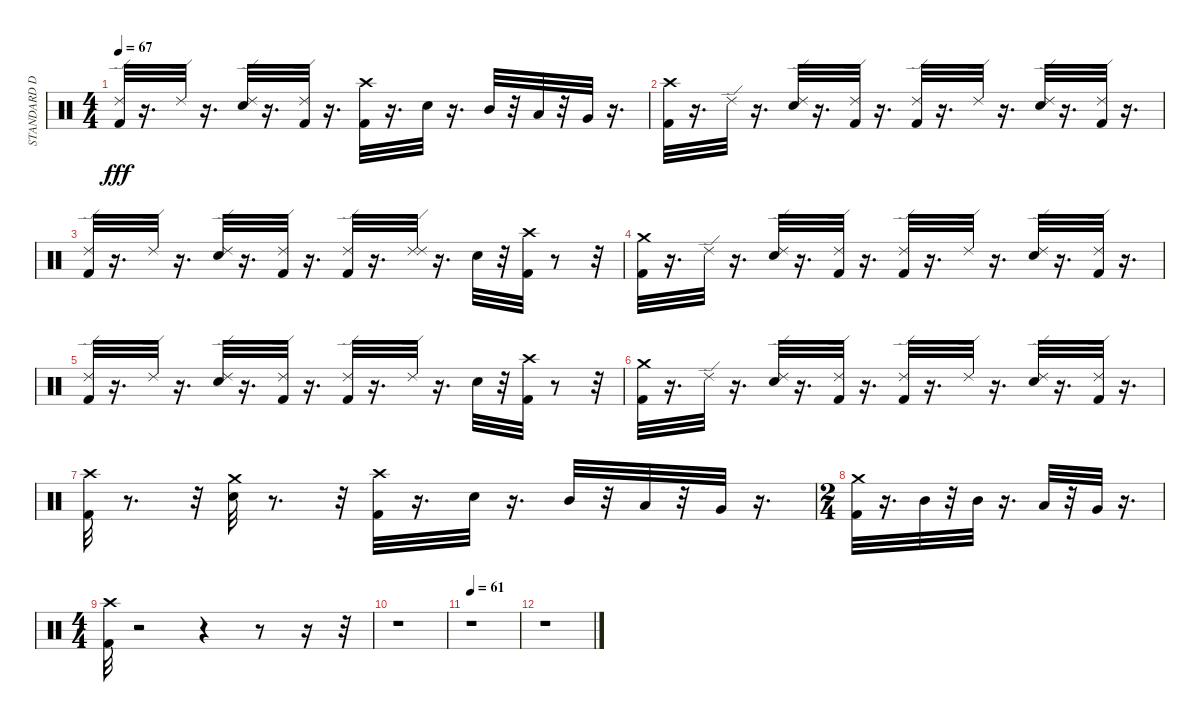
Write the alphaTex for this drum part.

\track ("STANDARD DRUM" "STANDARD D") {instrument percussion}
\staff {score}
\articulation defaults
\ts (4 4)
\tempo 67
\clef neutral
\ks c
("Ride (edge) 2" "Kick (hit) 2").32{dy fff} r.16{d} "Ride (edge) 2".32 r.16{d} ("Ride (edge) 2" "Snare (hit) 2").32 r.16{d} ("Ride (edge) 2" "Kick (hit) 2").32 r.16{d} ("Crash high (hit)" "Kick (hit) 2").32 r.16{d} "Snare (hit) 2".32 r.16{d} "Mid Tom (hit)".32 r.32 "Low Tom (hit)".32 r.32 "Very Low Tom (hit)".32 r.16{d} |
("Crash high (hit)" "Kick (hit) 2").32 r.16{d} "Ride (edge) 2".32 r.16{d} ("Ride (edge) 2" "Snare (hit) 2").32 r.16{d} ("Ride (edge) 2" "Kick (hit) 2").32 r.16{d} ("Ride (edge) 2" "Kick (hit) 2").32 r.16{d} "Ride (edge) 2".32 r.16{d} ("Ride (edge) 2" "Snare (hit) 2").32 r.16{d} ("Ride (edge) 2" "Kick (hit) 2").32 r.16{d} |
("Ride (edge) 2" "Kick (hit) 2").32 r.16{d} "Ride (edge) 2".32 r.16{d} ("Ride (edge) 2" "Snare (hit) 2").32 r.16{d} ("Ride (edge) 2" "Kick (hit) 2").32 r.16{d} ("Ride (edge) 2" "Kick (hit) 2").32 r.16{d} ("Ride (edge) 2" "Ride (edge) 2").32 r.16{d} "Snare (hit) 2".32 r.32 ("Crash high (hit)" "Kick (hit) 2").32 r.8 r.32 |
("Crash medium (hit)" "Kick (hit) 2").32 r.16{d} "Ride (edge) 2".32 r.16{d} ("Ride (edge) 2" "Snare (hit) 2").32 r.16{d} ("Ride (edge) 2" "Kick (hit) 2").32 r.16{d} ("Ride (edge) 2" "Kick (hit) 2").32 r.16{d} "Ride (edge) 2".32 r.16{d} ("Ride (edge) 2" "Snare (hit) 2").32 r.16{d} ("Ride (edge) 2" "Kick (hit) 2").32 r.16{d} |
("Ride (edge) 2" "Kick (hit) 2").32 r.16{d} "Ride (edge) 2".32 r.16{d} ("Ride (edge) 2" "Snare (hit) 2").32 r.16{d} ("Ride (edge) 2" "Kick (hit) 2").32 r.16{d} ("Ride (edge) 2" "Kick (hit) 2").32 r.16{d} "Ride (edge) 2".32 r.16{d} "Snare (hit) 2".32 r.32 ("Crash high (hit)" "Kick (hit) 2").32 r.8 r.32 |
("Crash medium (hit)" "Kick (hit) 2").32 r.16{d} "Ride (edge) 2".32 r.16{d} ("Ride (edge) 2" "Snare (hit) 2").32 r.16{d} ("Ride (edge) 2" "Kick (hit) 2").32 r.16{d} ("Ride (edge) 2" "Kick (hit) 2").32 r.16{d} "Ride (edge) 2".32 r.16{d} ("Ride (edge) 2" "Snare (hit) 2").32 r.16{d} ("Ride (edge) 2" "Kick (hit) 2").32 r.16{d} |
("Kick (hit) 2" "Crash high (hit)").32 r.8{d} r.32 ("Snare (hit) 2" "Crash medium (hit)").32 r.8{d} r.32 ("Crash high (hit)" "Kick (hit) 2").32 r.16{d} "Snare (hit) 2".32 r.16{d} "Mid Tom (hit)".32 r.32 "Low Tom (hit)".32 r.32 "Very Low Tom (hit)".32 r.16{d} |
\ts (2 4)
("Crash medium (hit)" "Kick (hit) 2").32 r.16{d} "Mid Tom (hit)".32 r.32 "Mid Tom (hit)".32 r.16{d} "Low Tom (hit)".32 r.32 "Very Low Tom (hit)".32 r.16{d} |
\ts (4 4)
("Kick (hit) 2" "Crash high (hit)").32 r.2 r.4 r.8 r.16 r.32 |
r.1 |
\tempo 61
r.1 |
r.1
